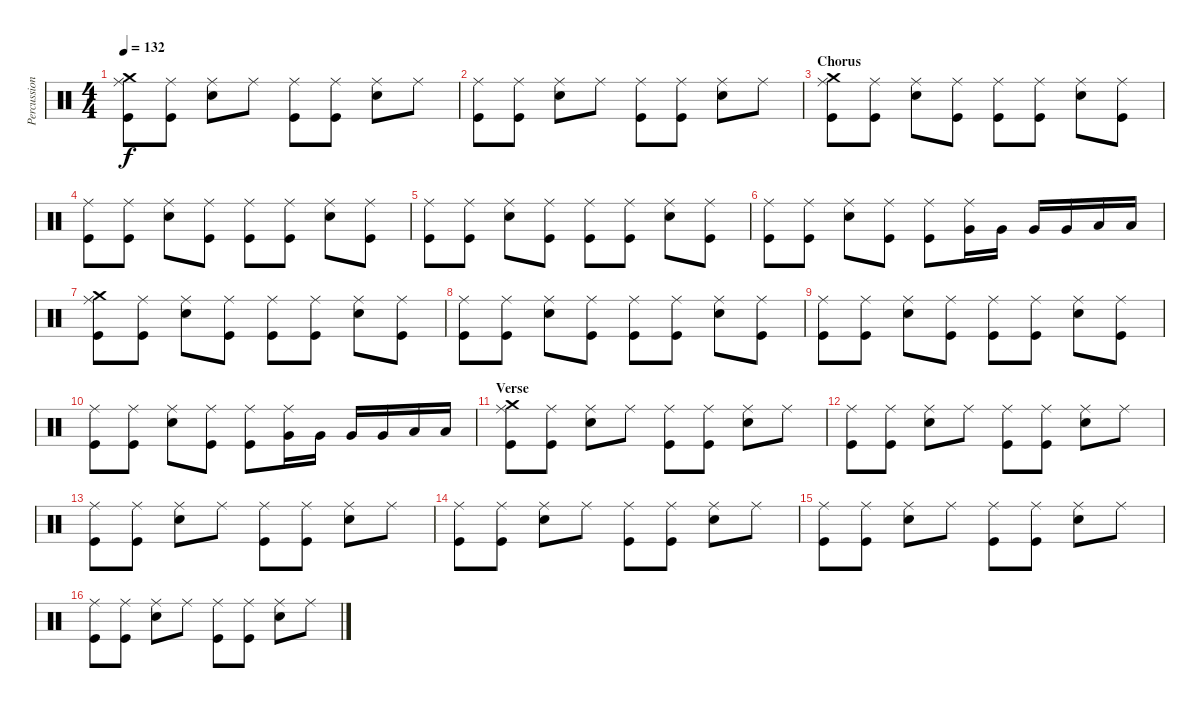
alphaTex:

\track ("Percussions" "Percussion") {instrument percussion}
\staff {score}
\articulation defaults
\ts (4 4)
\tempo 132
\clef neutral
\ks c
("Ride (middle)" "Crash medium (hit)" "Kick (hit)").8{dy f} ("Ride (middle)" "Kick (hit)").8 ("Ride (middle)" "Snare (hit) 2").8 "Ride (middle)".8 ("Ride (middle)" "Kick (hit)").8 ("Ride (middle)" "Kick (hit)").8 ("Ride (middle)" "Snare (hit) 2").8 "Ride (middle)".8 |
("Ride (middle)" "Kick (hit)").8 ("Ride (middle)" "Kick (hit)").8 ("Ride (middle)" "Snare (hit) 2").8 "Ride (middle)".8 ("Ride (middle)" "Kick (hit)").8 ("Ride (middle)" "Kick (hit)").8 ("Ride (middle)" "Snare (hit) 2").8 "Ride (middle)".8 |
\section ("" "Chorus")
("Ride (middle)" "Crash medium (hit)" "Kick (hit)").8 ("Ride (middle)" "Kick (hit)").8 ("Ride (middle)" "Snare (hit) 2").8 ("Ride (middle)" "Kick (hit)").8 ("Ride (middle)" "Kick (hit)").8 ("Ride (middle)" "Kick (hit)").8 ("Ride (middle)" "Snare (hit) 2").8 ("Ride (middle)" "Kick (hit)").8 |
("Ride (middle)" "Kick (hit)").8 ("Ride (middle)" "Kick (hit)").8 ("Ride (middle)" "Snare (hit) 2").8 ("Ride (middle)" "Kick (hit)").8 ("Ride (middle)" "Kick (hit)").8 ("Ride (middle)" "Kick (hit)").8 ("Ride (middle)" "Snare (hit) 2").8 ("Ride (middle)" "Kick (hit)").8 |
("Ride (middle)" "Kick (hit)").8 ("Ride (middle)" "Kick (hit)").8 ("Ride (middle)" "Snare (hit) 2").8 ("Ride (middle)" "Kick (hit)").8 ("Ride (middle)" "Kick (hit)").8 ("Ride (middle)" "Kick (hit)").8 ("Ride (middle)" "Snare (hit) 2").8 ("Ride (middle)" "Kick (hit)").8 |
("Ride (middle)" "Kick (hit)").8 ("Ride (middle)" "Kick (hit)").8 ("Ride (middle)" "Snare (hit) 2").8 ("Ride (middle)" "Kick (hit)").8 ("Ride (middle)" "Kick (hit)").8 ("Ride (middle)" "Very Low Tom (hit)").16 "Very Low Tom (hit)".16 "Very Low Tom (hit)".16 "Very Low Tom (hit)".16 "Low Floor Tom (hit)".16 "Low Floor Tom (hit)".16 |
("Ride (middle)" "Crash medium (hit)" "Kick (hit)").8 ("Ride (middle)" "Kick (hit)").8 ("Ride (middle)" "Snare (hit) 2").8 ("Ride (middle)" "Kick (hit)").8 ("Ride (middle)" "Kick (hit)").8 ("Ride (middle)" "Kick (hit)").8 ("Ride (middle)" "Snare (hit) 2").8 ("Ride (middle)" "Kick (hit)").8 |
("Ride (middle)" "Kick (hit)").8 ("Ride (middle)" "Kick (hit)").8 ("Ride (middle)" "Snare (hit) 2").8 ("Ride (middle)" "Kick (hit)").8 ("Ride (middle)" "Kick (hit)").8 ("Ride (middle)" "Kick (hit)").8 ("Ride (middle)" "Snare (hit) 2").8 ("Ride (middle)" "Kick (hit)").8 |
("Ride (middle)" "Kick (hit)").8 ("Ride (middle)" "Kick (hit)").8 ("Ride (middle)" "Snare (hit) 2").8 ("Ride (middle)" "Kick (hit)").8 ("Ride (middle)" "Kick (hit)").8 ("Ride (middle)" "Kick (hit)").8 ("Ride (middle)" "Snare (hit) 2").8 ("Ride (middle)" "Kick (hit)").8 |
("Ride (middle)" "Kick (hit)").8 ("Ride (middle)" "Kick (hit)").8 ("Ride (middle)" "Snare (hit) 2").8 ("Ride (middle)" "Kick (hit)").8 ("Ride (middle)" "Kick (hit)").8 ("Ride (middle)" "Very Low Tom (hit)").16 "Very Low Tom (hit)".16 "Very Low Tom (hit)".16 "Very Low Tom (hit)".16 "Low Floor Tom (hit)".16 "Low Floor Tom (hit)".16 |
\section ("" "Verse")
("Ride (middle)" "Crash medium (hit)" "Kick (hit)").8 ("Ride (middle)" "Kick (hit)").8 ("Ride (middle)" "Snare (hit) 2").8 "Ride (middle)".8 ("Ride (middle)" "Kick (hit)").8 ("Ride (middle)" "Kick (hit)").8 ("Ride (middle)" "Snare (hit) 2").8 "Ride (middle)".8 |
("Ride (middle)" "Kick (hit)").8 ("Ride (middle)" "Kick (hit)").8 ("Ride (middle)" "Snare (hit) 2").8 "Ride (middle)".8 ("Ride (middle)" "Kick (hit)").8 ("Ride (middle)" "Kick (hit)").8 ("Ride (middle)" "Snare (hit) 2").8 "Ride (middle)".8 |
("Ride (middle)" "Kick (hit)").8 ("Ride (middle)" "Kick (hit)").8 ("Ride (middle)" "Snare (hit) 2").8 "Ride (middle)".8 ("Ride (middle)" "Kick (hit)").8 ("Ride (middle)" "Kick (hit)").8 ("Ride (middle)" "Snare (hit) 2").8 "Ride (middle)".8 |
("Ride (middle)" "Kick (hit)").8 ("Ride (middle)" "Kick (hit)").8 ("Ride (middle)" "Snare (hit) 2").8 "Ride (middle)".8 ("Ride (middle)" "Kick (hit)").8 ("Ride (middle)" "Kick (hit)").8 ("Ride (middle)" "Snare (hit) 2").8 "Ride (middle)".8 |
("Ride (middle)" "Kick (hit)").8 ("Ride (middle)" "Kick (hit)").8 ("Ride (middle)" "Snare (hit) 2").8 "Ride (middle)".8 ("Ride (middle)" "Kick (hit)").8 ("Ride (middle)" "Kick (hit)").8 ("Ride (middle)" "Snare (hit) 2").8 "Ride (middle)".8 |
("Ride (middle)" "Kick (hit)").8 ("Ride (middle)" "Kick (hit)").8 ("Ride (middle)" "Snare (hit) 2").8 "Ride (middle)".8 ("Ride (middle)" "Kick (hit)").8 ("Ride (middle)" "Kick (hit)").8 ("Ride (middle)" "Snare (hit) 2").8 "Ride (middle)".8
